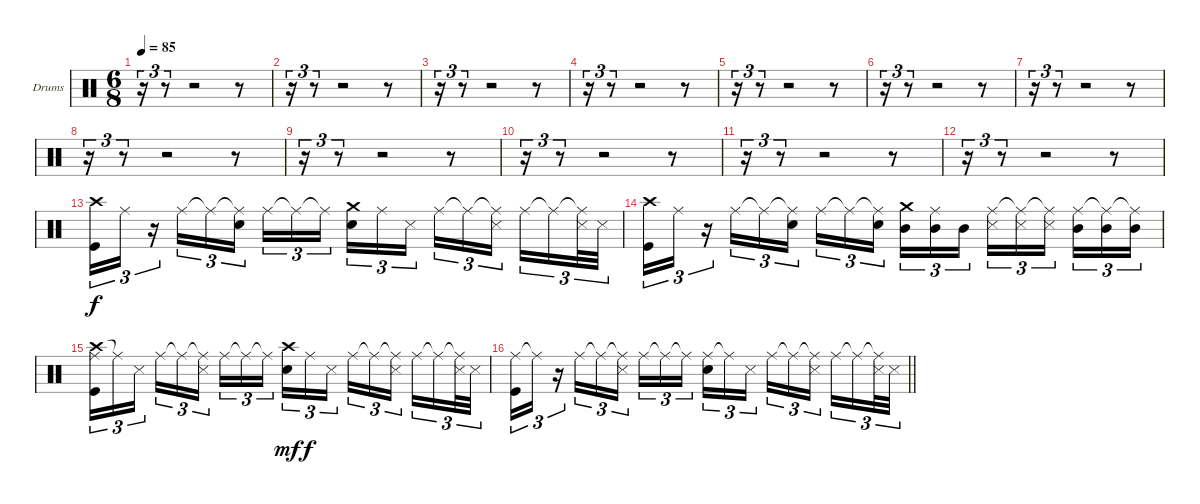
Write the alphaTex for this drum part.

\bracketExtendMode groupsimilarinstruments
\firstSystemTrackNameOrientation horizontal
\otherSystemsTrackNameOrientation horizontal
\track ("Drumkit" "Drums") {instrument percussion}
\staff {score}
\articulation defaults
\ts (6 8)
\tempo 85
\clef neutral
\ks c
r.16{tu (3 2) dy f} r.8{tu (3 2)} r.2 r.8 |
r.16{tu (3 2)} r.8{tu (3 2)} r.2 r.8 |
r.16{tu (3 2)} r.8{tu (3 2)} r.2 r.8 |
r.16{tu (3 2)} r.8{tu (3 2)} r.2 r.8 |
r.16{tu (3 2)} r.8{tu (3 2)} r.2 r.8 |
r.16{tu (3 2)} r.8{tu (3 2)} r.2 r.8 |
r.16{tu (3 2)} r.8{tu (3 2)} r.2 r.8 |
r.16{tu (3 2)} r.8{tu (3 2)} r.2 r.8 |
r.16{tu (3 2)} r.8{tu (3 2)} r.2 r.8 |
r.16{tu (3 2)} r.8{tu (3 2)} r.2 r.8 |
r.16{tu (3 2)} r.8{tu (3 2)} r.2 r.8 |
r.16{tu (3 2)} r.8{tu (3 2)} r.2 r.8 |
("Kick (hit)" "Crash high (hit)").16{tu (3 2)} "Ride (middle)".16{tu (3 2)} r.16{tu (3 2)} "Ride (middle)".16{tu (3 2)} "Ride (middle)"{t}.16{tu (3 2)} ("Ride (middle)"{t} "Snare (hit) 2").16{tu (3 2)} "Ride (middle)".16{tu (3 2)} "Ride (middle)"{t}.16{tu (3 2)} "Ride (middle)"{t}.16{tu (3 2)} ("Snare (hit) 2" "Crash medium (hit)").16{tu (3 2)} "Ride (middle)".16{tu (3 2)} "Snare (side stick) 3".16{tu (3 2)} "Ride (middle)".16{tu (3 2)} "Ride (middle)"{t}.16{tu (3 2)} ("Ride (middle)"{t} "Snare (side stick) 3").16{tu (3 2)} "Ride (middle)".16{tu (3 2)} "Ride (middle)"{t}.16{tu (3 2)} ("Ride (middle)"{t} "Snare (side stick) 3").32{tu (3 2)} "Snare (side stick) 3".32{tu (3 2)} |
("Kick (hit)" "Crash high (hit)").16{tu (3 2)} "Ride (middle)".16{tu (3 2)} r.16{tu (3 2)} "Ride (middle)".16{tu (3 2)} "Ride (middle)"{t}.16{tu (3 2)} ("Ride (middle)"{t} "Snare (hit) 2").16{tu (3 2)} "Ride (middle)".16{tu (3 2)} "Ride (middle)"{t}.16{tu (3 2)} ("Ride (middle)"{t} "Snare (hit) 2").16{tu (3 2)} ("Mid Tom (hit)" "Crash medium (hit)").16{tu (3 2)} ("Ride (middle)" "Mid Tom (hit)").16{tu (3 2)} "Mid Tom (hit)".16{tu (3 2)} ("Ride (middle)" "Snare (side stick) 3").16{tu (3 2)} ("Ride (middle)"{t} "Snare (side stick) 3").16{tu (3 2)} ("Ride (middle)"{t} "Snare (side stick) 3").16{tu (3 2)} ("Ride (middle)" "Mid Tom (hit)").16{tu (3 2)} ("Ride (middle)"{t} "Mid Tom (hit)").16{tu (3 2)} ("Ride (middle)"{t} "Mid Tom (hit)").16{tu (3 2)} |
("Crash high (hit)" "Ride (middle)" "Kick (hit)").16{tu (3 2)} "Ride (middle)"{t}.16{tu (3 2)} "Snare (side stick) 3".16{tu (3 2)} "Ride (middle)".16{tu (3 2)} "Ride (middle)"{t}.16{tu (3 2)} ("Ride (middle)"{t} "Snare (side stick) 3").16{tu (3 2)} "Ride (middle)".16{tu (3 2)} "Ride (middle)"{t}.16{tu (3 2)} "Ride (middle)"{t}.16{tu (3 2)} ("Snare (hit) 2" "Crash high (hit)").16{tu (3 2) dy mf} "Ride (middle)".16{tu (3 2) dy f} "Snare (side stick) 3".16{tu (3 2)} "Ride (middle)".16{tu (3 2)} "Ride (middle)"{t}.16{tu (3 2)} ("Ride (middle)"{t} "Snare (side stick) 3").16{tu (3 2)} "Ride (middle)".16{tu (3 2)} "Ride (middle)"{t}.16{tu (3 2)} ("Ride (middle)"{t} "Snare (side stick) 3").32{tu (3 2)} "Snare (side stick) 3".32{tu (3 2)} |
\barLineRight lightlight
("Ride (middle)" "Kick (hit)").16{tu (3 2)} "Ride (middle)"{t}.16{tu (3 2)} r.16{tu (3 2)} "Ride (middle)".16{tu (3 2)} "Ride (middle)"{t}.16{tu (3 2)} ("Ride (middle)"{t} "Snare (side stick) 3").16{tu (3 2)} "Ride (middle)".16{tu (3 2)} "Ride (middle)"{t}.16{tu (3 2)} "Ride (middle)"{t}.16{tu (3 2)} ("Ride (middle)" "Snare (hit) 2").16{tu (3 2)} "Ride (middle)"{t}.16{tu (3 2)} "Snare (side stick) 3".16{tu (3 2)} "Ride (middle)".16{tu (3 2)} "Ride (middle)"{t}.16{tu (3 2)} ("Ride (middle)"{t} "Snare (side stick) 3").16{tu (3 2)} "Ride (middle)".16{tu (3 2)} "Ride (middle)"{t}.16{tu (3 2)} ("Ride (middle)"{t} "Snare (side stick) 3").32{tu (3 2)} "Snare (side stick) 3".32{tu (3 2)}
